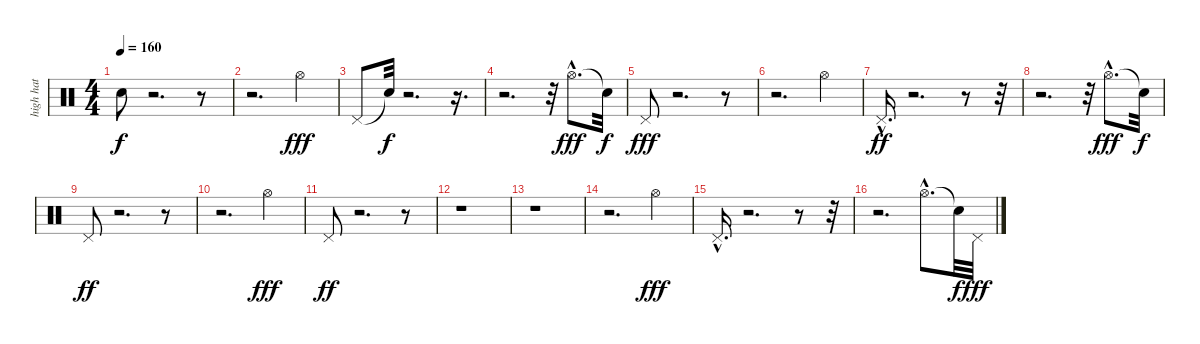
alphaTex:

\track ("high hat" "high hat") {instrument percussion}
\staff {score}
\articulation defaults
\ts (4 4)
\tempo 160
\clef neutral
\ks c "Snare (hit)"{t}.8{dy f}
r.2{d} r.8 |
r.2{d} "Hi-Hat (open)".4{dy fff} |
"Pedal Hi-Hat (hit)".8 "Snare (hit)"{t}.32{dy f} r.2{d} r.16{d} |
r.2{d} r.32 "Hi-Hat (open)"{hac}.8{d dy fff} "Snare (hit)"{t}.32{dy f} |
"Pedal Hi-Hat (hit)".8{dy fff} r.2{d} r.8 |
r.2{d} "Hi-Hat (open)".4 |
"Pedal Hi-Hat (hit)"{hac}.16{d dy ff} r.2{d} r.8 r.32 |
r.2{d} r.32 "Hi-Hat (open)"{hac}.8{d dy fff} "Snare (hit)"{t}.32{dy f} |
"Pedal Hi-Hat (hit)".8{dy ff} r.2{d} r.8 |
r.2{d} "Hi-Hat (open)".4{dy fff} |
"Pedal Hi-Hat (hit)".8{dy ff} r.2{d} r.8 |
r.1 |
r.1 |
r.2{d} "Hi-Hat (open)".4{dy fff} |
"Pedal Hi-Hat (hit)"{hac}.16{d} r.2{d} r.8 r.32 |
r.2{d} "Hi-Hat (open)"{hac}.8{d} "Snare (hit)"{t}.32{dy f} "Pedal Hi-Hat (hit)".32{dy fff}
